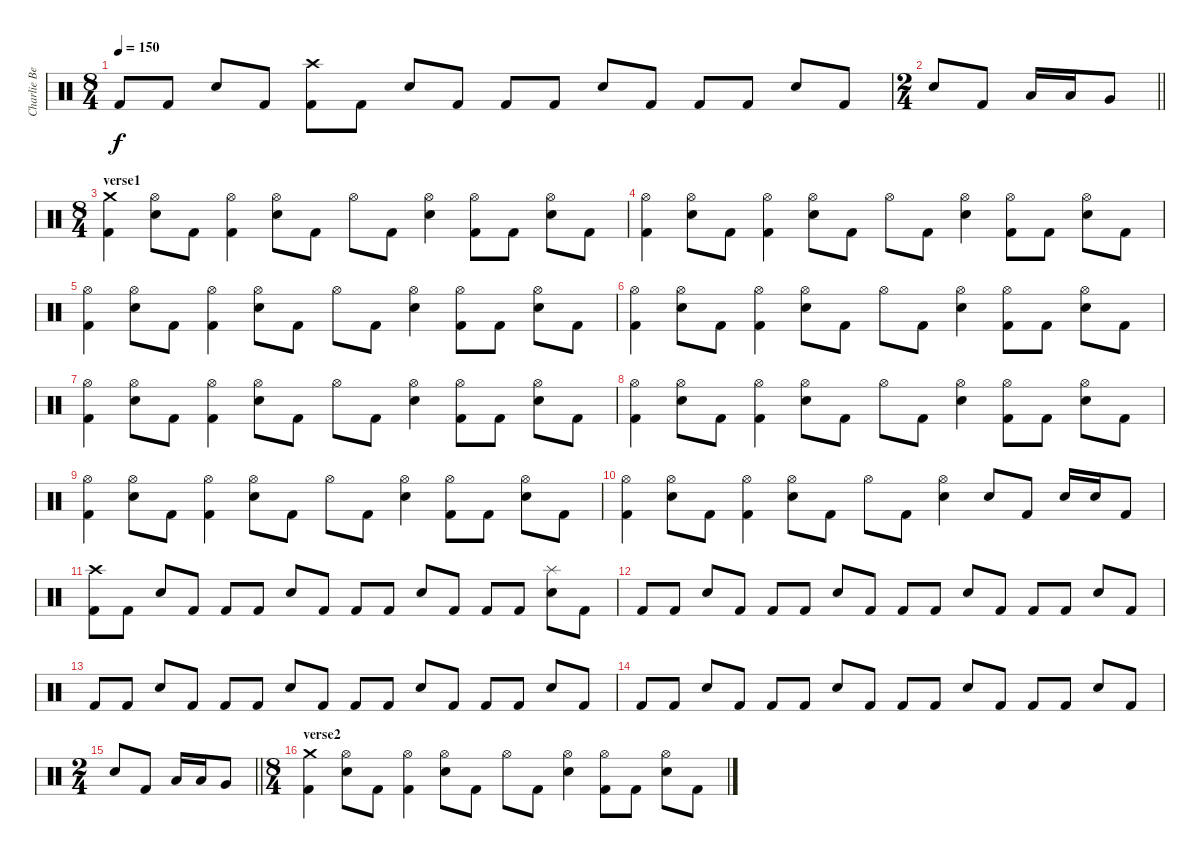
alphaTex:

\track ("Charlie Benante" "Charlie Be") {instrument percussion}
\staff {score}
\articulation defaults
\ts (8 4)
\tempo 150
\clef neutral
\ks c "Kick (hit) 2".8{dy f} "Kick (hit) 2".8 "Electric Snare (hit)".8 "Kick (hit) 2".8
("Crash high (hit)" "Kick (hit) 2").8 "Kick (hit) 2".8 "Electric Snare (hit)".8 "Kick (hit) 2".8 "Kick (hit) 2".8 "Kick (hit) 2".8 "Electric Snare (hit)".8 "Kick (hit) 2".8 "Kick (hit) 2".8 "Kick (hit) 2".8 "Electric Snare (hit)".8 "Kick (hit) 2".8 |
\ts (2 4)
\barLineRight lightlight "Electric Snare (hit)".8 "Kick (hit) 2".8 "Low Tom (hit)".16 "Low Tom (hit)".16 "Very Low Tom (hit)".8
|
\ts (8 4)
\section ("" "verse1")
("Crash medium (hit)" "Kick (hit) 2").4 ("Hi-Hat (open)" "Electric Snare (hit)").8 "Kick (hit) 2".8 ("Hi-Hat (open)" "Kick (hit) 2").4 ("Hi-Hat (open)" "Electric Snare (hit)").8 "Kick (hit) 2".8 "Hi-Hat (open)".8 "Kick (hit) 2".8 ("Hi-Hat (open)" "Electric Snare (hit)").4 ("Hi-Hat (open)" "Kick (hit) 2").8 "Kick (hit) 2".8 ("Hi-Hat (open)" "Electric Snare (hit)").8 "Kick (hit) 2".8 |
("Hi-Hat (open)" "Kick (hit) 2").4 ("Hi-Hat (open)" "Electric Snare (hit)").8 "Kick (hit) 2".8 ("Hi-Hat (open)" "Kick (hit) 2").4 ("Hi-Hat (open)" "Electric Snare (hit)").8 "Kick (hit) 2".8 "Hi-Hat (open)".8 "Kick (hit) 2".8 ("Hi-Hat (open)" "Electric Snare (hit)").4 ("Hi-Hat (open)" "Kick (hit) 2").8 "Kick (hit) 2".8 ("Hi-Hat (open)" "Electric Snare (hit)").8 "Kick (hit) 2".8 |
("Hi-Hat (open)" "Kick (hit) 2").4 ("Hi-Hat (open)" "Electric Snare (hit)").8 "Kick (hit) 2".8 ("Hi-Hat (open)" "Kick (hit) 2").4 ("Hi-Hat (open)" "Electric Snare (hit)").8 "Kick (hit) 2".8 "Hi-Hat (open)".8 "Kick (hit) 2".8 ("Hi-Hat (open)" "Electric Snare (hit)").4 ("Hi-Hat (open)" "Kick (hit) 2").8 "Kick (hit) 2".8 ("Hi-Hat (open)" "Electric Snare (hit)").8 "Kick (hit) 2".8 |
("Hi-Hat (open)" "Kick (hit) 2").4 ("Hi-Hat (open)" "Electric Snare (hit)").8 "Kick (hit) 2".8 ("Hi-Hat (open)" "Kick (hit) 2").4 ("Hi-Hat (open)" "Electric Snare (hit)").8 "Kick (hit) 2".8 "Hi-Hat (open)".8 "Kick (hit) 2".8 ("Hi-Hat (open)" "Electric Snare (hit)").4 ("Hi-Hat (open)" "Kick (hit) 2").8 "Kick (hit) 2".8 ("Hi-Hat (open)" "Electric Snare (hit)").8 "Kick (hit) 2".8 |
("Hi-Hat (open)" "Kick (hit) 2").4 ("Hi-Hat (open)" "Electric Snare (hit)").8 "Kick (hit) 2".8 ("Hi-Hat (open)" "Kick (hit) 2").4 ("Hi-Hat (open)" "Electric Snare (hit)").8 "Kick (hit) 2".8 "Hi-Hat (open)".8 "Kick (hit) 2".8 ("Hi-Hat (open)" "Electric Snare (hit)").4 ("Hi-Hat (open)" "Kick (hit) 2").8 "Kick (hit) 2".8 ("Hi-Hat (open)" "Electric Snare (hit)").8 "Kick (hit) 2".8 |
("Hi-Hat (open)" "Kick (hit) 2").4 ("Hi-Hat (open)" "Electric Snare (hit)").8 "Kick (hit) 2".8 ("Hi-Hat (open)" "Kick (hit) 2").4 ("Hi-Hat (open)" "Electric Snare (hit)").8 "Kick (hit) 2".8 "Hi-Hat (open)".8 "Kick (hit) 2".8 ("Hi-Hat (open)" "Electric Snare (hit)").4 ("Hi-Hat (open)" "Kick (hit) 2").8 "Kick (hit) 2".8 ("Hi-Hat (open)" "Electric Snare (hit)").8 "Kick (hit) 2".8 |
("Hi-Hat (open)" "Kick (hit) 2").4 ("Hi-Hat (open)" "Electric Snare (hit)").8 "Kick (hit) 2".8 ("Hi-Hat (open)" "Kick (hit) 2").4 ("Hi-Hat (open)" "Electric Snare (hit)").8 "Kick (hit) 2".8 "Hi-Hat (open)".8 "Kick (hit) 2".8 ("Hi-Hat (open)" "Electric Snare (hit)").4 ("Hi-Hat (open)" "Kick (hit) 2").8 "Kick (hit) 2".8 ("Hi-Hat (open)" "Electric Snare (hit)").8 "Kick (hit) 2".8 |
("Hi-Hat (open)" "Kick (hit) 2").4 ("Hi-Hat (open)" "Electric Snare (hit)").8 "Kick (hit) 2".8 ("Hi-Hat (open)" "Kick (hit) 2").4 ("Hi-Hat (open)" "Electric Snare (hit)").8 "Kick (hit) 2".8 "Hi-Hat (open)".8 "Kick (hit) 2".8 ("Hi-Hat (open)" "Electric Snare (hit)").4 "Electric Snare (hit)".8 "Kick (hit) 2".8 "Electric Snare (hit)".16 "Electric Snare (hit)".16 "Kick (hit) 2".8 |
("Crash high (hit)" "Kick (hit) 2").8 "Kick (hit) 2".8 "Electric Snare (hit)".8 "Kick (hit) 2".8 "Kick (hit) 2".8 "Kick (hit) 2".8 "Electric Snare (hit)".8 "Kick (hit) 2".8 "Kick (hit) 2".8 "Kick (hit) 2".8 "Electric Snare (hit)".8 "Kick (hit) 2".8 "Kick (hit) 2".8 "Kick (hit) 2".8 ("Splash (hit)" "Electric Snare (hit)").8 "Kick (hit) 2".8 |
"Kick (hit) 2".8 "Kick (hit) 2".8 "Electric Snare (hit)".8 "Kick (hit) 2".8 "Kick (hit) 2".8 "Kick (hit) 2".8 "Electric Snare (hit)".8 "Kick (hit) 2".8 "Kick (hit) 2".8 "Kick (hit) 2".8 "Electric Snare (hit)".8 "Kick (hit) 2".8 "Kick (hit) 2".8 "Kick (hit) 2".8 "Electric Snare (hit)".8 "Kick (hit) 2".8 |
"Kick (hit) 2".8 "Kick (hit) 2".8 "Electric Snare (hit)".8 "Kick (hit) 2".8 "Kick (hit) 2".8 "Kick (hit) 2".8 "Electric Snare (hit)".8 "Kick (hit) 2".8 "Kick (hit) 2".8 "Kick (hit) 2".8 "Electric Snare (hit)".8 "Kick (hit) 2".8 "Kick (hit) 2".8 "Kick (hit) 2".8 "Electric Snare (hit)".8 "Kick (hit) 2".8 |
"Kick (hit) 2".8 "Kick (hit) 2".8 "Electric Snare (hit)".8 "Kick (hit) 2".8 "Kick (hit) 2".8 "Kick (hit) 2".8 "Electric Snare (hit)".8 "Kick (hit) 2".8 "Kick (hit) 2".8 "Kick (hit) 2".8 "Electric Snare (hit)".8 "Kick (hit) 2".8 "Kick (hit) 2".8 "Kick (hit) 2".8 "Electric Snare (hit)".8 "Kick (hit) 2".8 |
\ts (2 4)
\barLineRight lightlight "Electric Snare (hit)".8 "Kick (hit) 2".8 "Low Tom (hit)".16 "Low Tom (hit)".16 "Very Low Tom (hit)".8
|
\ts (8 4)
\section ("" "verse2")
("Crash medium (hit)" "Kick (hit) 2").4 ("Hi-Hat (open)" "Electric Snare (hit)").8 "Kick (hit) 2".8 ("Hi-Hat (open)" "Kick (hit) 2").4 ("Hi-Hat (open)" "Electric Snare (hit)").8 "Kick (hit) 2".8 "Hi-Hat (open)".8 "Kick (hit) 2".8 ("Hi-Hat (open)" "Electric Snare (hit)").4 ("Hi-Hat (open)" "Kick (hit) 2").8 "Kick (hit) 2".8 ("Hi-Hat (open)" "Electric Snare (hit)").8 "Kick (hit) 2".8
